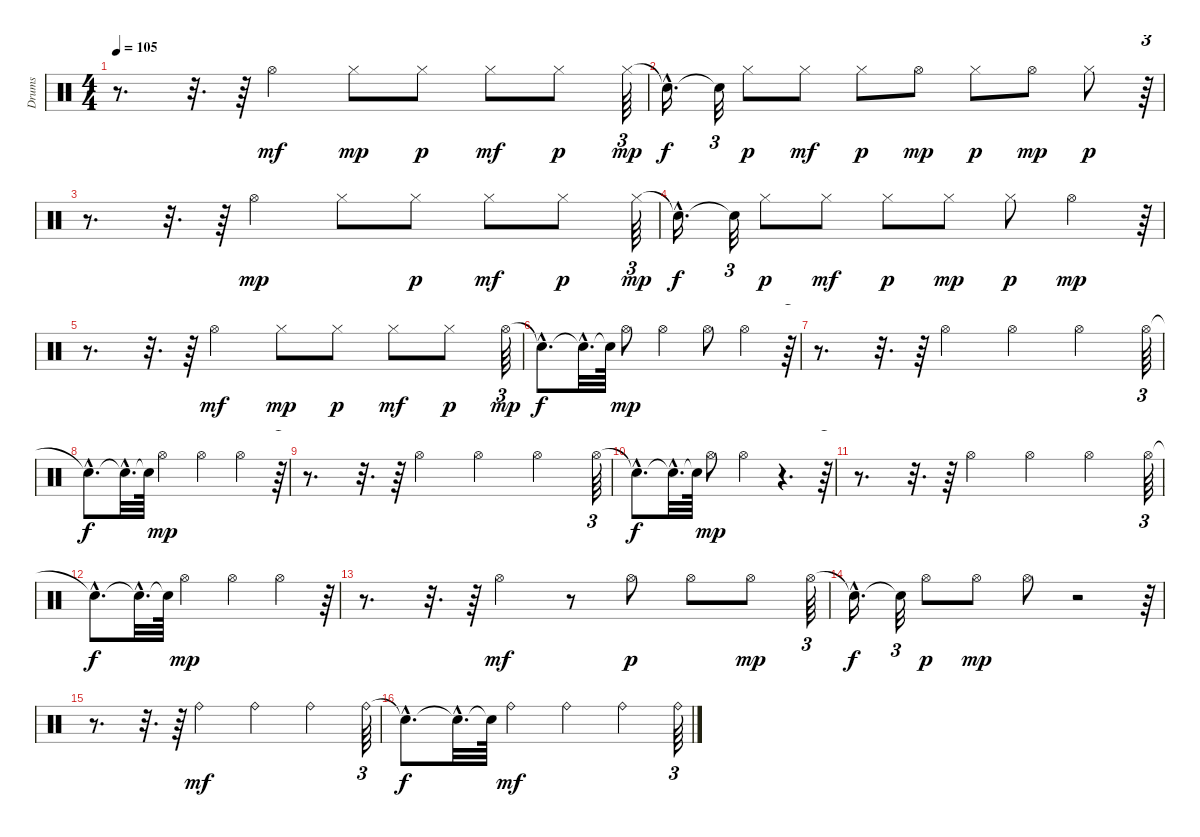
\track ("Drums" "Drums") {instrument percussion}
\staff {score}
\articulation defaults
\ts (4 4)
\tempo 105
\clef neutral
\ks c
r.8{d dy mp} r.32{d} r.64 "Hi-Hat (open)".4{dy mf} "Hi-Hat (closed)".8{dy mp} "Hi-Hat (closed)".8{dy p} "Hi-Hat (closed)".8{dy mf} "Hi-Hat (closed)".8{dy p} "Hi-Hat (closed)".64{tu (3 2) dy mp} |
"Snare (hit)"{hac t}.16{d dy f} "Snare (hit)"{t}.32{tu (3 2)} "Hi-Hat (closed)".8{dy p} "Hi-Hat (closed)".8{dy mf} "Hi-Hat (closed)".8{dy p} "Hi-Hat (open)".8{dy mp} "Hi-Hat (closed)".8{dy p} "Hi-Hat (open)".8{dy mp} "Hi-Hat (closed)".8{dy p} r.64{tu (3 2)} |
r.8{d} r.32{d} r.64 "Hi-Hat (open)".4{dy mp} "Hi-Hat (closed)".8 "Hi-Hat (closed)".8{dy p} "Hi-Hat (closed)".8{dy mf} "Hi-Hat (closed)".8{dy p} "Hi-Hat (closed)".64{tu (3 2) dy mp} |
"Snare (hit)"{hac t}.16{d dy f} "Snare (hit)"{t}.32{tu (3 2)} "Hi-Hat (closed)".8{dy p} "Hi-Hat (closed)".8{dy mf} "Hi-Hat (closed)".8{dy p} "Hi-Hat (closed)".8{dy mp} "Hi-Hat (closed)".8{dy p} "Hi-Hat (open)".4{dy mp} r.64{tu (3 2)} |
r.8{d} r.32{d} r.64 "Hi-Hat (open)".4{dy mf} "Hi-Hat (closed)".8{dy mp} "Hi-Hat (closed)".8{dy p} "Hi-Hat (closed)".8{dy mf} "Hi-Hat (closed)".8{dy p} "Hi-Hat (open)".64{tu (3 2) dy mp} |
"Snare (hit)"{hac t}.8{d dy f} "Snare (hit)"{hac t}.32{d} "Snare (hit)"{t}.64 "Hi-Hat (open)".8{dy mp} "Hi-Hat (open)".4 "Hi-Hat (open)".8 "Hi-Hat (open)".4 r.64{tu (3 2)} |
r.8{d} r.32{d} r.64 "Hi-Hat (open)".4 "Hi-Hat (open)".4 "Hi-Hat (open)".4 "Hi-Hat (open)".64{tu (3 2)} |
"Snare (hit)"{hac t}.8{d dy f} "Snare (hit)"{hac t}.32{d} "Snare (hit)"{t}.64 "Hi-Hat (open)".4{dy mp} "Hi-Hat (open)".4 "Hi-Hat (open)".4 r.64{tu (3 2)} |
r.8{d} r.32{d} r.64 "Hi-Hat (open)".4 "Hi-Hat (open)".4 "Hi-Hat (open)".4 "Hi-Hat (open)".64{tu (3 2)} |
"Snare (hit)"{hac t}.8{d dy f} "Snare (hit)"{hac t}.32{d} "Snare (hit)"{t}.64 "Hi-Hat (open)".8{dy mp} "Hi-Hat (open)".4 r.4{d} r.64{tu (3 2)} |
r.8{d} r.32{d} r.64 "Hi-Hat (open)".4 "Hi-Hat (open)".4 "Hi-Hat (open)".4 "Hi-Hat (open)".64{tu (3 2)} |
"Snare (hit)"{hac t}.8{d dy f} "Snare (hit)"{hac t}.32{d} "Snare (hit)"{t}.64 "Hi-Hat (open)".4{dy mp} "Hi-Hat (open)".4 "Hi-Hat (open)".4 r.64{tu (3 2)} |
r.8{d} r.32{d} r.64 "Hi-Hat (open)".4{dy mf} r.8 "Hi-Hat (open)".8{dy p} "Hi-Hat (open)".8 "Hi-Hat (open)".8{dy mp} "Hi-Hat (open)".64{tu (3 2)} |
"Snare (hit)"{hac t}.16{d dy f} "Snare (hit)"{t}.32{tu (3 2)} "Hi-Hat (open)".8{dy p} "Hi-Hat (open)".8{dy mp} "Hi-Hat (open)".8 r.2 r.64{tu (3 2)} |
r.8{d} r.32{d} r.64 "Ride (bell)".4{dy mf} "Ride (bell)".4 "Ride (bell)".4 "Ride (bell)".64{tu (3 2)} |
"Snare (hit)"{hac t}.8{d dy f} "Snare (hit)"{hac t}.32{d} "Snare (hit)"{t}.64 "Ride (bell)".4{dy mf} "Ride (bell)".4 "Ride (bell)".4 "Ride (bell)".64{tu (3 2)}
